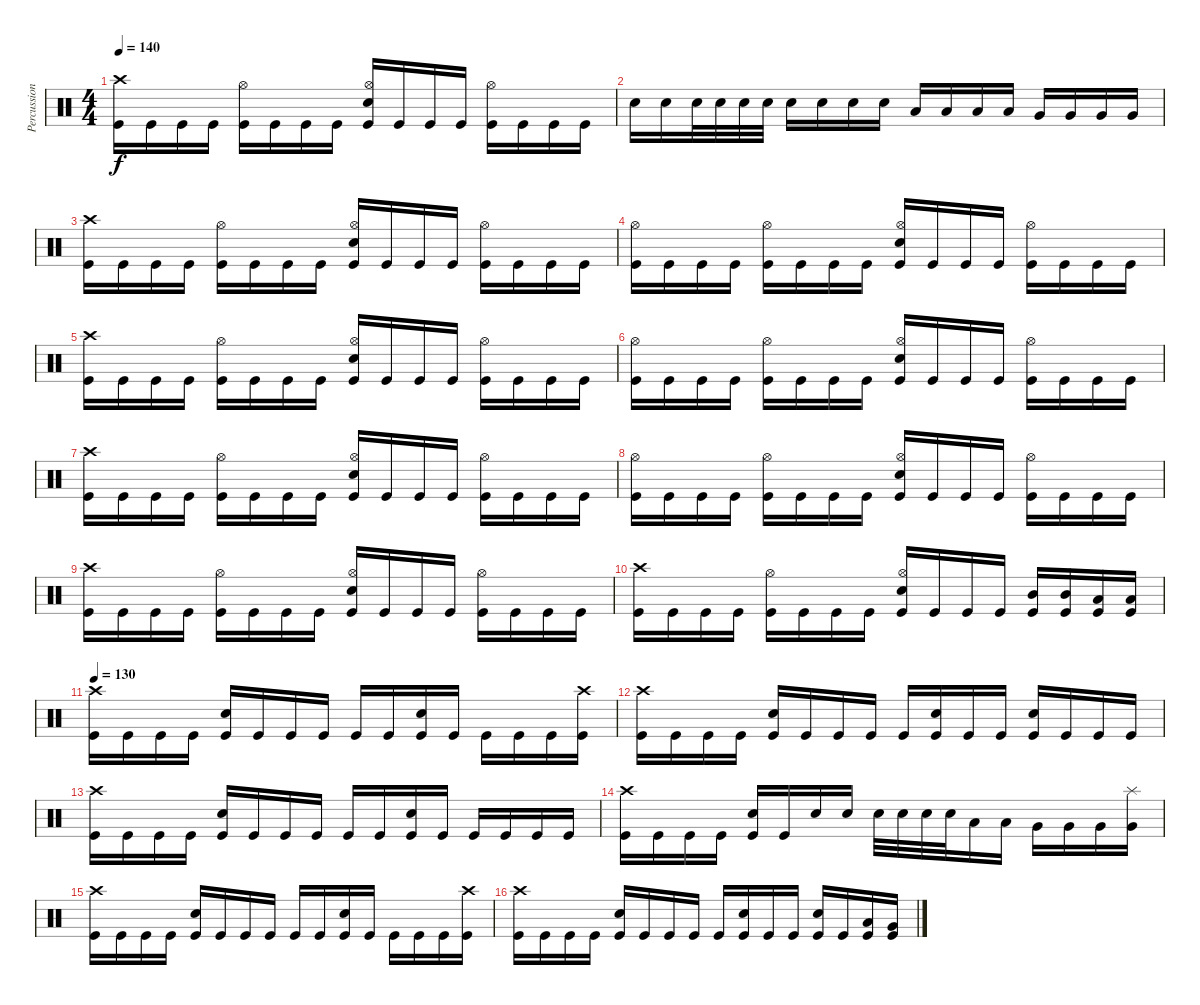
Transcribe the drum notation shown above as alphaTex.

\track ("Percussion" "Percussion") {instrument percussion}
\staff {score}
\articulation defaults
\ts (4 4)
\tempo 140
\clef neutral
\ks c
("Crash high (hit)" "Kick (hit)").16{dy f} "Kick (hit)".16 "Kick (hit)".16 "Kick (hit)".16 ("Hi-Hat (open)" "Kick (hit)").16 "Kick (hit)".16 "Kick (hit)".16 "Kick (hit)".16 ("Hi-Hat (open)" "Snare (hit) 2" "Kick (hit)").16 "Kick (hit)".16 "Kick (hit)".16 "Kick (hit)".16 ("Hi-Hat (open)" "Kick (hit)").16 "Kick (hit)".16 "Kick (hit)".16 "Kick (hit)".16 |
"Snare (hit) 2".16 "Snare (hit) 2".16 "Snare (hit) 2".32 "Snare (hit) 2".32 "Snare (hit) 2".32 "Snare (hit) 2".32 "Snare (hit) 2".16 "Snare (hit) 2".16 "Snare (hit) 2".16 "Snare (hit) 2".16 "Low Tom (hit)".16 "Low Tom (hit)".16 "Low Tom (hit)".16 "Low Tom (hit)".16 "Very Low Tom (hit)".16 "Very Low Tom (hit)".16 "Very Low Tom (hit)".16 "Very Low Tom (hit)".16 |
("Crash high (hit)" "Kick (hit)").16 "Kick (hit)".16 "Kick (hit)".16 "Kick (hit)".16 ("Hi-Hat (open)" "Kick (hit)").16 "Kick (hit)".16 "Kick (hit)".16 "Kick (hit)".16 ("Hi-Hat (open)" "Snare (hit) 2" "Kick (hit)").16 "Kick (hit)".16 "Kick (hit)".16 "Kick (hit)".16 ("Hi-Hat (open)" "Kick (hit)").16 "Kick (hit)".16 "Kick (hit)".16 "Kick (hit)".16 |
("Hi-Hat (open)" "Kick (hit)").16 "Kick (hit)".16 "Kick (hit)".16 "Kick (hit)".16 ("Hi-Hat (open)" "Kick (hit)").16 "Kick (hit)".16 "Kick (hit)".16 "Kick (hit)".16 ("Hi-Hat (open)" "Snare (hit) 2" "Kick (hit)").16 "Kick (hit)".16 "Kick (hit)".16 "Kick (hit)".16 ("Hi-Hat (open)" "Kick (hit)").16 "Kick (hit)".16 "Kick (hit)".16 "Kick (hit)".16 |
("Crash high (hit)" "Kick (hit)").16 "Kick (hit)".16 "Kick (hit)".16 "Kick (hit)".16 ("Hi-Hat (open)" "Kick (hit)").16 "Kick (hit)".16 "Kick (hit)".16 "Kick (hit)".16 ("Hi-Hat (open)" "Snare (hit) 2" "Kick (hit)").16 "Kick (hit)".16 "Kick (hit)".16 "Kick (hit)".16 ("Hi-Hat (open)" "Kick (hit)").16 "Kick (hit)".16 "Kick (hit)".16 "Kick (hit)".16 |
("Hi-Hat (open)" "Kick (hit)").16 "Kick (hit)".16 "Kick (hit)".16 "Kick (hit)".16 ("Hi-Hat (open)" "Kick (hit)").16 "Kick (hit)".16 "Kick (hit)".16 "Kick (hit)".16 ("Hi-Hat (open)" "Snare (hit) 2" "Kick (hit)").16 "Kick (hit)".16 "Kick (hit)".16 "Kick (hit)".16 ("Hi-Hat (open)" "Kick (hit)").16 "Kick (hit)".16 "Kick (hit)".16 "Kick (hit)".16 |
("Crash high (hit)" "Kick (hit)").16 "Kick (hit)".16 "Kick (hit)".16 "Kick (hit)".16 ("Hi-Hat (open)" "Kick (hit)").16 "Kick (hit)".16 "Kick (hit)".16 "Kick (hit)".16 ("Hi-Hat (open)" "Snare (hit) 2" "Kick (hit)").16 "Kick (hit)".16 "Kick (hit)".16 "Kick (hit)".16 ("Hi-Hat (open)" "Kick (hit)").16 "Kick (hit)".16 "Kick (hit)".16 "Kick (hit)".16 |
("Hi-Hat (open)" "Kick (hit)").16 "Kick (hit)".16 "Kick (hit)".16 "Kick (hit)".16 ("Hi-Hat (open)" "Kick (hit)").16 "Kick (hit)".16 "Kick (hit)".16 "Kick (hit)".16 ("Hi-Hat (open)" "Snare (hit) 2" "Kick (hit)").16 "Kick (hit)".16 "Kick (hit)".16 "Kick (hit)".16 ("Hi-Hat (open)" "Kick (hit)").16 "Kick (hit)".16 "Kick (hit)".16 "Kick (hit)".16 |
("Crash high (hit)" "Kick (hit)").16 "Kick (hit)".16 "Kick (hit)".16 "Kick (hit)".16 ("Hi-Hat (open)" "Kick (hit)").16 "Kick (hit)".16 "Kick (hit)".16 "Kick (hit)".16 ("Hi-Hat (open)" "Snare (hit) 2" "Kick (hit)").16 "Kick (hit)".16 "Kick (hit)".16 "Kick (hit)".16 ("Hi-Hat (open)" "Kick (hit)").16 "Kick (hit)".16 "Kick (hit)".16 "Kick (hit)".16 |
("Crash high (hit)" "Kick (hit)").16 "Kick (hit)".16 "Kick (hit)".16 "Kick (hit)".16 ("Hi-Hat (open)" "Kick (hit)").16 "Kick (hit)".16 "Kick (hit)".16 "Kick (hit)".16 ("Hi-Hat (open)" "Snare (hit) 2" "Kick (hit)").16 "Kick (hit)".16 "Kick (hit)".16 "Kick (hit)".16 ("Mid Tom (hit)" "Kick (hit)").16 ("Mid Tom (hit)" "Kick (hit)").16 ("Low Tom (hit)" "Kick (hit)").16 ("Low Tom (hit)" "Kick (hit)").16 |
\tempo 130
("Crash high (hit)" "Kick (hit)").16 "Kick (hit)".16 "Kick (hit)".16 "Kick (hit)".16 ("Snare (hit) 2" "Kick (hit)").16 "Kick (hit)".16 "Kick (hit)".16 "Kick (hit)".16 "Kick (hit)".16 "Kick (hit)".16 ("Snare (hit) 2" "Kick (hit)").16 "Kick (hit)".16 "Kick (hit)".16 "Kick (hit)".16 "Kick (hit)".16 ("Crash high (hit)" "Kick (hit)").16 |
("Crash high (hit)" "Kick (hit)").16 "Kick (hit)".16 "Kick (hit)".16 "Kick (hit)".16 ("Snare (hit) 2" "Kick (hit)").16 "Kick (hit)".16 "Kick (hit)".16 "Kick (hit)".16 "Kick (hit)".16 ("Snare (hit) 2" "Kick (hit)").16 "Kick (hit)".16 "Kick (hit)".16 ("Snare (hit) 2" "Kick (hit)").16 "Kick (hit)".16 "Kick (hit)".16 "Kick (hit)".16 |
("Crash high (hit)" "Kick (hit)").16 "Kick (hit)".16 "Kick (hit)".16 "Kick (hit)".16 ("Snare (hit) 2" "Kick (hit)").16 "Kick (hit)".16 "Kick (hit)".16 "Kick (hit)".16 "Kick (hit)".16 "Kick (hit)".16 ("Snare (hit) 2" "Kick (hit)").16 "Kick (hit)".16 "Kick (hit)".16 "Kick (hit)".16 "Kick (hit)".16 "Kick (hit)".16 |
("Crash high (hit)" "Kick (hit)").16 "Kick (hit)".16 "Kick (hit)".16 "Kick (hit)".16 ("Snare (hit) 2" "Kick (hit)").16 "Kick (hit)".16 "Snare (hit) 2".16 "Snare (hit) 2".16 "Snare (hit) 2".32 "Snare (hit) 2".32 "Snare (hit) 2".32 "Snare (hit) 2".32 "Low Tom (hit)".16 "Low Tom (hit)".16 "Very Low Tom (hit)".16 "Very Low Tom (hit)".16 "Very Low Tom (hit)".16 ("Splash (hit)" "Very Low Tom (hit)").16 |
("Crash high (hit)" "Kick (hit)").16 "Kick (hit)".16 "Kick (hit)".16 "Kick (hit)".16 ("Snare (hit) 2" "Kick (hit)").16 "Kick (hit)".16 "Kick (hit)".16 "Kick (hit)".16 "Kick (hit)".16 "Kick (hit)".16 ("Snare (hit) 2" "Kick (hit)").16 "Kick (hit)".16 "Kick (hit)".16 "Kick (hit)".16 "Kick (hit)".16 ("Crash high (hit)" "Kick (hit)").16 |
("Crash high (hit)" "Kick (hit)").16 "Kick (hit)".16 "Kick (hit)".16 "Kick (hit)".16 ("Snare (hit) 2" "Kick (hit)").16 "Kick (hit)".16 "Kick (hit)".16 "Kick (hit)".16 "Kick (hit)".16 ("Snare (hit) 2" "Kick (hit)").16 "Kick (hit)".16 "Kick (hit)".16 ("Snare (hit) 2" "Kick (hit)").16 "Kick (hit)".16 ("Low Tom (hit)" "Kick (hit)").16 ("Very Low Tom (hit)" "Kick (hit)").16
